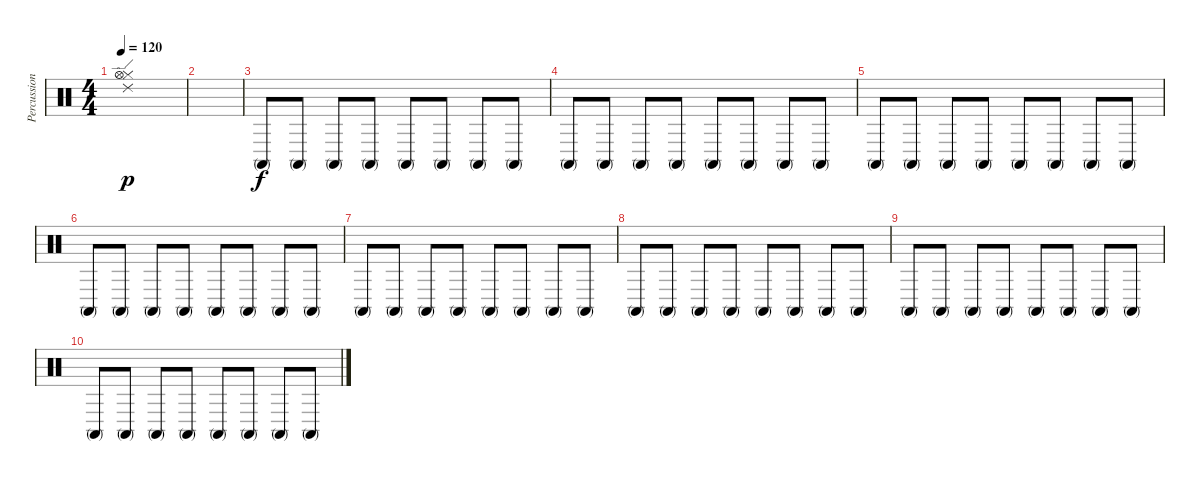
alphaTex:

\track ("Percussion" "Percussion") {instrument percussion}
\staff {score}
\articulation defaults
\ts (4 4)
\tempo 120
\clef neutral
\ks c
("Hi-Hat (closed)" "Ride (edge) 2" "Hi-Hat (open)").1{dy p volume 0} |
|
"Conga high (mute)".8{dy f volume 9} "Conga high (mute)".8 "Conga high (mute)".8 "Conga high (mute)".8 "Conga high (mute)".8 "Conga high (mute)".8 "Conga high (mute)".8 "Conga high (mute)".8 |
"Conga high (mute)".8{volume 9} "Conga high (mute)".8 "Conga high (mute)".8 "Conga high (mute)".8 "Conga high (mute)".8 "Conga high (mute)".8 "Conga high (mute)".8 "Conga high (mute)".8 |
"Conga high (mute)".8{volume 9} "Conga high (mute)".8 "Conga high (mute)".8 "Conga high (mute)".8 "Conga high (mute)".8 "Conga high (mute)".8 "Conga high (mute)".8 "Conga high (mute)".8 |
"Conga high (mute)".8{volume 9} "Conga high (mute)".8 "Conga high (mute)".8 "Conga high (mute)".8 "Conga high (mute)".8 "Conga high (mute)".8 "Conga high (mute)".8 "Conga high (mute)".8 |
"Conga high (mute)".8 "Conga high (mute)".8 "Conga high (mute)".8 "Conga high (mute)".8 "Conga high (mute)".8 "Conga high (mute)".8 "Conga high (mute)".8 "Conga high (mute)".8 |
"Conga high (mute)".8{volume 9} "Conga high (mute)".8 "Conga high (mute)".8 "Conga high (mute)".8 "Conga high (mute)".8 "Conga high (mute)".8 "Conga high (mute)".8 "Conga high (mute)".8 |
"Conga high (mute)".8{volume 9} "Conga high (mute)".8 "Conga high (mute)".8 "Conga high (mute)".8 "Conga high (mute)".8 "Conga high (mute)".8 "Conga high (mute)".8 "Conga high (mute)".8 |
"Conga high (mute)".8 "Conga high (mute)".8 "Conga high (mute)".8 "Conga high (mute)".8 "Conga high (mute)".8 "Conga high (mute)".8 "Conga high (mute)".8 "Conga high (mute)".8
